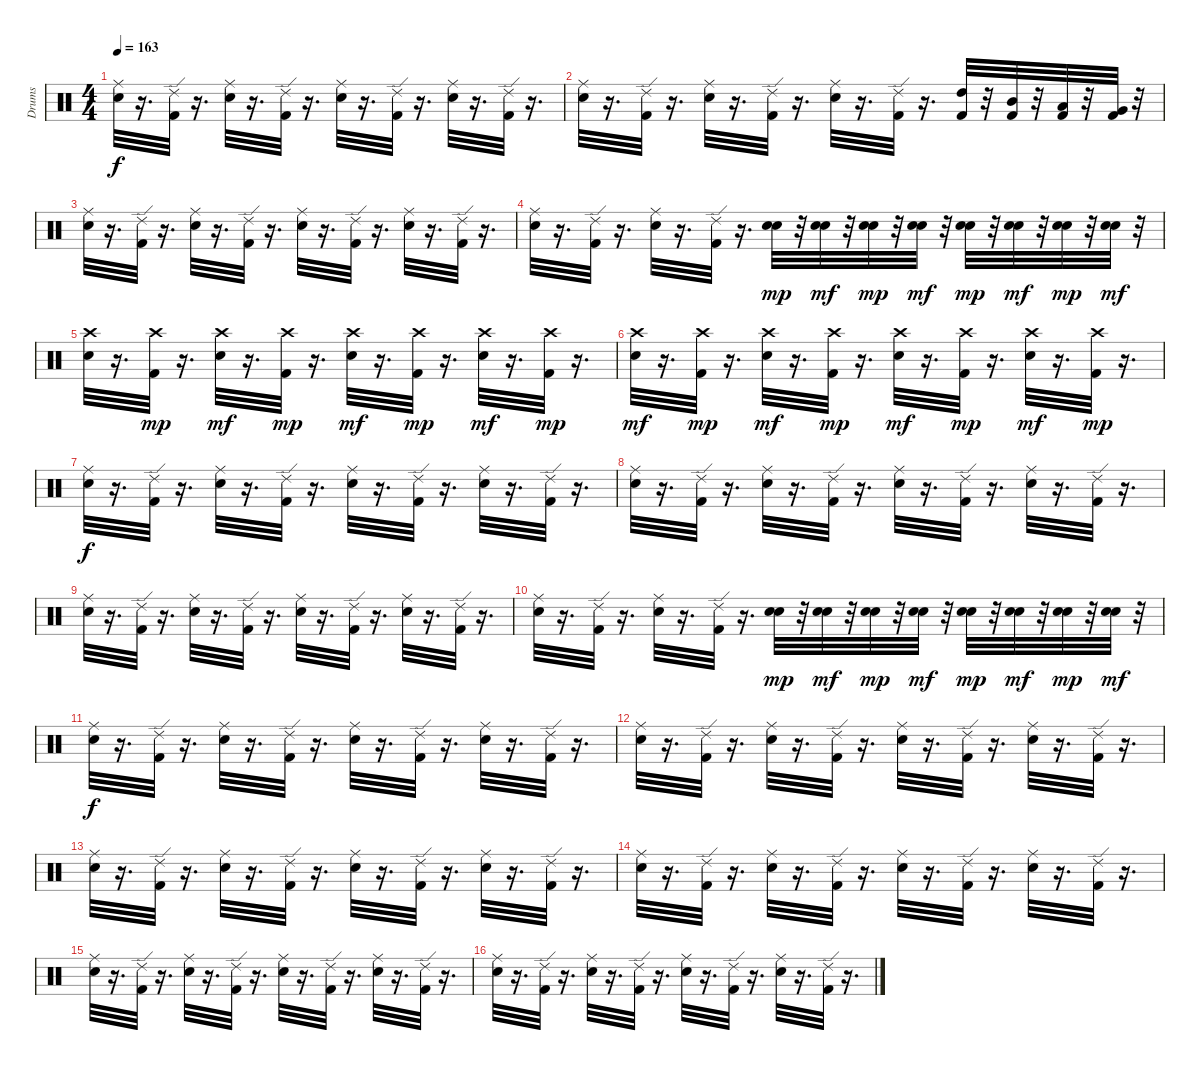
\track ("Drums" "Drums") {instrument percussion}
\staff {score}
\articulation defaults
\ts (4 4)
\tempo 163
\clef neutral
\ks c
("Snare (hit) 2" "Ride (middle)").32{dy f} r.16{d} ("Kick (hit) 2" "Ride (edge) 2").32 r.16{d} ("Snare (hit) 2" "Ride (middle)").32 r.16{d} ("Kick (hit) 2" "Ride (edge) 2").32 r.16{d} ("Snare (hit) 2" "Ride (middle)").32 r.16{d} ("Kick (hit) 2" "Ride (edge) 2").32 r.16{d} ("Snare (hit) 2" "Ride (middle)").32 r.16{d} ("Kick (hit) 2" "Ride (edge) 2").32 r.16{d} |
("Snare (hit) 2" "Ride (middle)").32 r.16{d} ("Kick (hit) 2" "Ride (edge) 2").32 r.16{d} ("Snare (hit) 2" "Ride (middle)").32 r.16{d} ("Kick (hit) 2" "Ride (edge) 2").32 r.16{d} ("Snare (hit) 2" "Ride (middle)").32 r.16{d} ("Kick (hit) 2" "Ride (edge) 2").32 r.16{d} ("Kick (hit) 2" "High Tom (hit)").32 r.32 ("Kick (hit) 2" "Mid Tom (hit)").32 r.32 ("Kick (hit) 2" "Low Tom (hit)").32 r.32 ("Kick (hit) 2" "Very Low Tom (hit)").32 r.32 |
("Snare (hit) 2" "Ride (middle)").32 r.16{d} ("Kick (hit) 2" "Ride (edge) 2").32 r.16{d} ("Snare (hit) 2" "Ride (middle)").32 r.16{d} ("Kick (hit) 2" "Ride (edge) 2").32 r.16{d} ("Snare (hit) 2" "Ride (middle)").32 r.16{d} ("Kick (hit) 2" "Ride (edge) 2").32 r.16{d} ("Snare (hit) 2" "Ride (middle)").32 r.16{d} ("Kick (hit) 2" "Ride (edge) 2").32 r.16{d} |
("Snare (hit) 2" "Ride (middle)").32 r.16{d} ("Kick (hit) 2" "Ride (edge) 2").32 r.16{d} ("Snare (hit) 2" "Ride (middle)").32 r.16{d} ("Kick (hit) 2" "Ride (edge) 2").32 r.16{d} ("Snare (hit) 2" "Electric Snare (hit)").32{dy mp} r.32 ("Snare (hit) 2" "Electric Snare (hit)").32{dy mf} r.32 ("Snare (hit) 2" "Electric Snare (hit)").32{dy mp} r.32 ("Snare (hit) 2" "Electric Snare (hit)").32{dy mf} r.32 ("Snare (hit) 2" "Electric Snare (hit)").32{dy mp} r.32 ("Snare (hit) 2" "Electric Snare (hit)").32{dy mf} r.32 ("Snare (hit) 2" "Electric Snare (hit)").32{dy mp} r.32 ("Snare (hit) 2" "Electric Snare (hit)").32{dy mf} r.32 |
("Snare (hit) 2" "Crash high (hit)").32 r.16{d} ("Kick (hit) 2" "Crash high (hit)").32{dy mp} r.16{d} ("Snare (hit) 2" "Crash high (hit)").32{dy mf} r.16{d} ("Kick (hit) 2" "Crash high (hit)").32{dy mp} r.16{d} ("Snare (hit) 2" "Crash high (hit)").32{dy mf} r.16{d} ("Kick (hit) 2" "Crash high (hit)").32{dy mp} r.16{d} ("Snare (hit) 2" "Crash high (hit)").32{dy mf} r.16{d} ("Kick (hit) 2" "Crash high (hit)").32{dy mp} r.16{d} |
("Snare (hit) 2" "Crash high (hit)").32{dy mf} r.16{d} ("Kick (hit) 2" "Crash high (hit)").32{dy mp} r.16{d} ("Snare (hit) 2" "Crash high (hit)").32{dy mf} r.16{d} ("Kick (hit) 2" "Crash high (hit)").32{dy mp} r.16{d} ("Snare (hit) 2" "Crash high (hit)").32{dy mf} r.16{d} ("Kick (hit) 2" "Crash high (hit)").32{dy mp} r.16{d} ("Snare (hit) 2" "Crash high (hit)").32{dy mf} r.16{d} ("Kick (hit) 2" "Crash high (hit)").32{dy mp} r.16{d} |
("Snare (hit) 2" "Ride (middle)").32{dy f} r.16{d} ("Kick (hit) 2" "Ride (edge) 2").32 r.16{d} ("Snare (hit) 2" "Ride (middle)").32 r.16{d} ("Kick (hit) 2" "Ride (edge) 2").32 r.16{d} ("Snare (hit) 2" "Ride (middle)").32 r.16{d} ("Kick (hit) 2" "Ride (edge) 2").32 r.16{d} ("Snare (hit) 2" "Ride (middle)").32 r.16{d} ("Kick (hit) 2" "Ride (edge) 2").32 r.16{d} |
("Snare (hit) 2" "Ride (middle)").32 r.16{d} ("Kick (hit) 2" "Ride (edge) 2").32 r.16{d} ("Snare (hit) 2" "Ride (middle)").32 r.16{d} ("Kick (hit) 2" "Ride (edge) 2").32 r.16{d} ("Snare (hit) 2" "Ride (middle)").32 r.16{d} ("Kick (hit) 2" "Ride (edge) 2").32 r.16{d} ("Snare (hit) 2" "Ride (middle)").32 r.16{d} ("Kick (hit) 2" "Ride (edge) 2").32 r.16{d} |
("Snare (hit) 2" "Ride (middle)").32 r.16{d} ("Kick (hit) 2" "Ride (edge) 2").32 r.16{d} ("Snare (hit) 2" "Ride (middle)").32 r.16{d} ("Kick (hit) 2" "Ride (edge) 2").32 r.16{d} ("Snare (hit) 2" "Ride (middle)").32 r.16{d} ("Kick (hit) 2" "Ride (edge) 2").32 r.16{d} ("Snare (hit) 2" "Ride (middle)").32 r.16{d} ("Kick (hit) 2" "Ride (edge) 2").32 r.16{d} |
("Snare (hit) 2" "Ride (middle)").32 r.16{d} ("Kick (hit) 2" "Ride (edge) 2").32 r.16{d} ("Snare (hit) 2" "Ride (middle)").32 r.16{d} ("Kick (hit) 2" "Ride (edge) 2").32 r.16{d} ("Snare (hit) 2" "Electric Snare (hit)").32{dy mp} r.32 ("Snare (hit) 2" "Electric Snare (hit)").32{dy mf} r.32 ("Snare (hit) 2" "Electric Snare (hit)").32{dy mp} r.32 ("Snare (hit) 2" "Electric Snare (hit)").32{dy mf} r.32 ("Snare (hit) 2" "Electric Snare (hit)").32{dy mp} r.32 ("Snare (hit) 2" "Electric Snare (hit)").32{dy mf} r.32 ("Snare (hit) 2" "Electric Snare (hit)").32{dy mp} r.32 ("Snare (hit) 2" "Electric Snare (hit)").32{dy mf} r.32 |
("Snare (hit) 2" "Ride (middle)").32{dy f} r.16{d} ("Kick (hit) 2" "Ride (edge) 2").32 r.16{d} ("Snare (hit) 2" "Ride (middle)").32 r.16{d} ("Kick (hit) 2" "Ride (edge) 2").32 r.16{d} ("Snare (hit) 2" "Ride (middle)").32 r.16{d} ("Kick (hit) 2" "Ride (edge) 2").32 r.16{d} ("Snare (hit) 2" "Ride (middle)").32 r.16{d} ("Kick (hit) 2" "Ride (edge) 2").32 r.16{d} |
("Snare (hit) 2" "Ride (middle)").32 r.16{d} ("Kick (hit) 2" "Ride (edge) 2").32 r.16{d} ("Snare (hit) 2" "Ride (middle)").32 r.16{d} ("Kick (hit) 2" "Ride (edge) 2").32 r.16{d} ("Snare (hit) 2" "Ride (middle)").32 r.16{d} ("Kick (hit) 2" "Ride (edge) 2").32 r.16{d} ("Snare (hit) 2" "Ride (middle)").32 r.16{d} ("Kick (hit) 2" "Ride (edge) 2").32 r.16{d} |
("Snare (hit) 2" "Ride (middle)").32 r.16{d} ("Kick (hit) 2" "Ride (edge) 2").32 r.16{d} ("Snare (hit) 2" "Ride (middle)").32 r.16{d} ("Kick (hit) 2" "Ride (edge) 2").32 r.16{d} ("Snare (hit) 2" "Ride (middle)").32 r.16{d} ("Kick (hit) 2" "Ride (edge) 2").32 r.16{d} ("Snare (hit) 2" "Ride (middle)").32 r.16{d} ("Kick (hit) 2" "Ride (edge) 2").32 r.16{d} |
("Snare (hit) 2" "Ride (middle)").32 r.16{d} ("Kick (hit) 2" "Ride (edge) 2").32 r.16{d} ("Snare (hit) 2" "Ride (middle)").32 r.16{d} ("Kick (hit) 2" "Ride (edge) 2").32 r.16{d} ("Snare (hit) 2" "Ride (middle)").32 r.16{d} ("Kick (hit) 2" "Ride (edge) 2").32 r.16{d} ("Snare (hit) 2" "Ride (middle)").32 r.16{d} ("Kick (hit) 2" "Ride (edge) 2").32 r.16{d} |
("Snare (hit) 2" "Ride (middle)").32 r.16{d} ("Kick (hit) 2" "Ride (edge) 2").32 r.16{d} ("Snare (hit) 2" "Ride (middle)").32 r.16{d} ("Kick (hit) 2" "Ride (edge) 2").32 r.16{d} ("Snare (hit) 2" "Ride (middle)").32 r.16{d} ("Kick (hit) 2" "Ride (edge) 2").32 r.16{d} ("Snare (hit) 2" "Ride (middle)").32 r.16{d} ("Kick (hit) 2" "Ride (edge) 2").32 r.16{d} |
("Snare (hit) 2" "Ride (middle)").32 r.16{d} ("Kick (hit) 2" "Ride (edge) 2").32 r.16{d} ("Snare (hit) 2" "Ride (middle)").32 r.16{d} ("Kick (hit) 2" "Ride (edge) 2").32 r.16{d} ("Snare (hit) 2" "Ride (middle)").32 r.16{d} ("Kick (hit) 2" "Ride (edge) 2").32 r.16{d} ("Snare (hit) 2" "Ride (middle)").32 r.16{d} ("Kick (hit) 2" "Ride (edge) 2").32 r.16{d}
